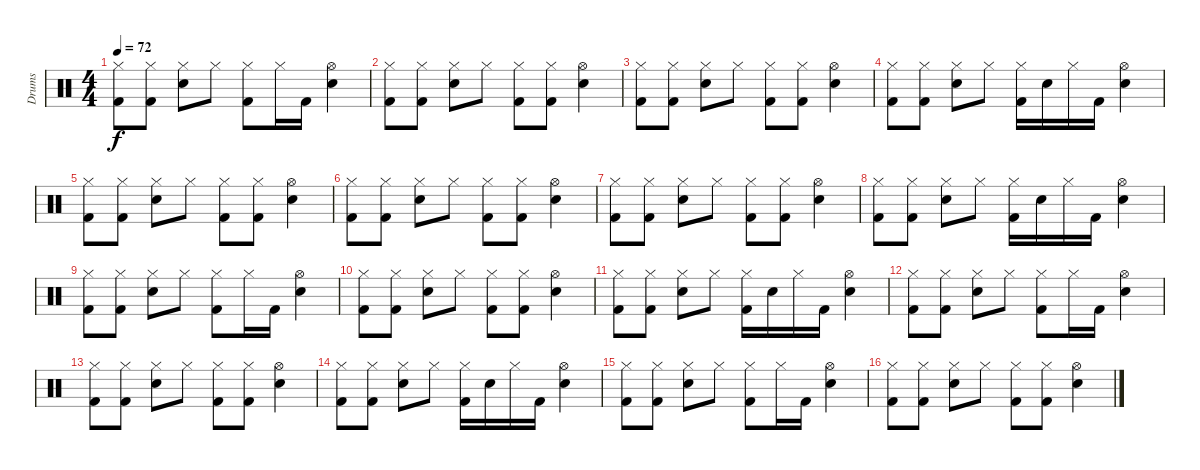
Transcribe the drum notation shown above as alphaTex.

\track ("Drums" "Drums") {instrument percussion}
\staff {score}
\articulation defaults
\ts (4 4)
\tempo 72
\clef neutral
\ks c
("Hi-Hat (closed)" "Kick (hit) 2").8{dy f} ("Hi-Hat (closed)" "Kick (hit) 2").8 ("Hi-Hat (closed)" "Electric Snare (hit)").8 "Hi-Hat (closed)".8 ("Hi-Hat (closed)" "Kick (hit) 2").8 "Hi-Hat (closed)".16 "Kick (hit) 2".16 ("Hi-Hat (open)" "Electric Snare (hit)").4 |
("Hi-Hat (closed)" "Kick (hit) 2").8 ("Hi-Hat (closed)" "Kick (hit) 2").8 ("Hi-Hat (closed)" "Electric Snare (hit)").8 "Hi-Hat (closed)".8 ("Hi-Hat (closed)" "Kick (hit) 2").8 ("Hi-Hat (closed)" "Kick (hit) 2").8 ("Hi-Hat (open)" "Electric Snare (hit)").4 |
("Hi-Hat (closed)" "Kick (hit) 2").8 ("Hi-Hat (closed)" "Kick (hit) 2").8 ("Hi-Hat (closed)" "Electric Snare (hit)").8 "Hi-Hat (closed)".8 ("Hi-Hat (closed)" "Kick (hit) 2").8 ("Hi-Hat (closed)" "Kick (hit) 2").8 ("Hi-Hat (open)" "Electric Snare (hit)").4 |
("Hi-Hat (closed)" "Kick (hit) 2").8 ("Hi-Hat (closed)" "Kick (hit) 2").8 ("Hi-Hat (closed)" "Electric Snare (hit)").8 "Hi-Hat (closed)".8 ("Hi-Hat (closed)" "Kick (hit) 2").16 "Electric Snare (hit)".16 "Hi-Hat (closed)".16 "Kick (hit) 2".16 ("Hi-Hat (open)" "Electric Snare (hit)").4 |
("Hi-Hat (closed)" "Kick (hit) 2").8 ("Hi-Hat (closed)" "Kick (hit) 2").8 ("Hi-Hat (closed)" "Electric Snare (hit)").8 "Hi-Hat (closed)".8 ("Hi-Hat (closed)" "Kick (hit) 2").8 ("Hi-Hat (closed)" "Kick (hit) 2").8 ("Hi-Hat (open)" "Electric Snare (hit)").4 |
("Hi-Hat (closed)" "Kick (hit) 2").8 ("Hi-Hat (closed)" "Kick (hit) 2").8 ("Hi-Hat (closed)" "Electric Snare (hit)").8 "Hi-Hat (closed)".8 ("Hi-Hat (closed)" "Kick (hit) 2").8 ("Hi-Hat (closed)" "Kick (hit) 2").8 ("Hi-Hat (open)" "Electric Snare (hit)").4 |
("Hi-Hat (closed)" "Kick (hit) 2").8 ("Hi-Hat (closed)" "Kick (hit) 2").8 ("Hi-Hat (closed)" "Electric Snare (hit)").8 "Hi-Hat (closed)".8 ("Hi-Hat (closed)" "Kick (hit) 2").8 ("Hi-Hat (closed)" "Kick (hit) 2").8 ("Hi-Hat (open)" "Electric Snare (hit)").4 |
("Hi-Hat (closed)" "Kick (hit) 2").8 ("Hi-Hat (closed)" "Kick (hit) 2").8 ("Hi-Hat (closed)" "Electric Snare (hit)").8 "Hi-Hat (closed)".8 ("Hi-Hat (closed)" "Kick (hit) 2").16 "Electric Snare (hit)".16 "Hi-Hat (closed)".16 "Kick (hit) 2".16 ("Hi-Hat (open)" "Electric Snare (hit)").4 |
("Hi-Hat (closed)" "Kick (hit) 2").8 ("Hi-Hat (closed)" "Kick (hit) 2").8 ("Hi-Hat (closed)" "Electric Snare (hit)").8 "Hi-Hat (closed)".8 ("Hi-Hat (closed)" "Kick (hit) 2").8 "Hi-Hat (closed)".16 "Kick (hit) 2".16 ("Hi-Hat (open)" "Electric Snare (hit)").4 |
("Hi-Hat (closed)" "Kick (hit) 2").8 ("Hi-Hat (closed)" "Kick (hit) 2").8 ("Hi-Hat (closed)" "Electric Snare (hit)").8 "Hi-Hat (closed)".8 ("Hi-Hat (closed)" "Kick (hit) 2").8 ("Hi-Hat (closed)" "Kick (hit) 2").8 ("Hi-Hat (open)" "Electric Snare (hit)").4 |
("Hi-Hat (closed)" "Kick (hit) 2").8 ("Hi-Hat (closed)" "Kick (hit) 2").8 ("Hi-Hat (closed)" "Electric Snare (hit)").8 "Hi-Hat (closed)".8 ("Hi-Hat (closed)" "Kick (hit) 2").16 "Electric Snare (hit)".16 "Hi-Hat (closed)".16 "Kick (hit) 2".16 ("Hi-Hat (open)" "Electric Snare (hit)").4 |
("Hi-Hat (closed)" "Kick (hit) 2").8 ("Hi-Hat (closed)" "Kick (hit) 2").8 ("Hi-Hat (closed)" "Electric Snare (hit)").8 "Hi-Hat (closed)".8 ("Hi-Hat (closed)" "Kick (hit) 2").8 "Hi-Hat (closed)".16 "Kick (hit) 2".16 ("Hi-Hat (open)" "Electric Snare (hit)").4 |
("Hi-Hat (closed)" "Kick (hit) 2").8 ("Hi-Hat (closed)" "Kick (hit) 2").8 ("Hi-Hat (closed)" "Electric Snare (hit)").8 "Hi-Hat (closed)".8 ("Hi-Hat (closed)" "Kick (hit) 2").8 ("Hi-Hat (closed)" "Kick (hit) 2").8 ("Hi-Hat (open)" "Electric Snare (hit)").4 |
("Hi-Hat (closed)" "Kick (hit) 2").8 ("Hi-Hat (closed)" "Kick (hit) 2").8 ("Hi-Hat (closed)" "Electric Snare (hit)").8 "Hi-Hat (closed)".8 ("Hi-Hat (closed)" "Kick (hit) 2").16 "Electric Snare (hit)".16 "Hi-Hat (closed)".16 "Kick (hit) 2".16 ("Hi-Hat (open)" "Electric Snare (hit)").4 |
("Hi-Hat (closed)" "Kick (hit) 2").8 ("Hi-Hat (closed)" "Kick (hit) 2").8 ("Hi-Hat (closed)" "Electric Snare (hit)").8 "Hi-Hat (closed)".8 ("Hi-Hat (closed)" "Kick (hit) 2").8 "Hi-Hat (closed)".16 "Kick (hit) 2".16 ("Hi-Hat (open)" "Electric Snare (hit)").4 |
("Hi-Hat (closed)" "Kick (hit) 2").8 ("Hi-Hat (closed)" "Kick (hit) 2").8 ("Hi-Hat (closed)" "Electric Snare (hit)").8 "Hi-Hat (closed)".8 ("Hi-Hat (closed)" "Kick (hit) 2").8 ("Hi-Hat (closed)" "Kick (hit) 2").8 ("Hi-Hat (open)" "Electric Snare (hit)").4
